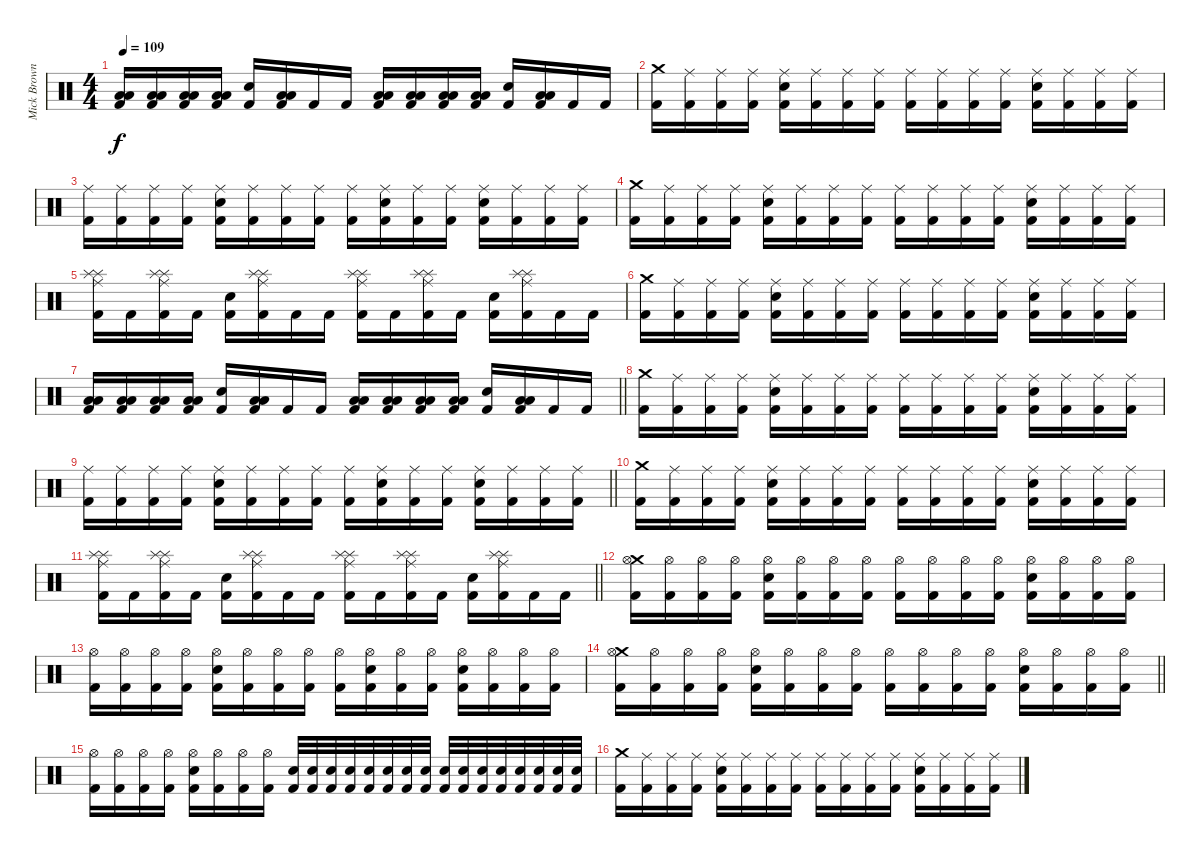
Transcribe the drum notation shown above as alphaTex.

\track ("Mick Brown" "Mick Brown") {instrument percussion}
\staff {score}
\articulation defaults
\ts (4 4)
\tempo 109
\clef neutral
\ks c
("Low Floor Tom (hit)" "Low Floor Tom (hit)" "Kick (hit) 2").16{dy f} ("Low Floor Tom (hit)" "Low Floor Tom (hit)" "Kick (hit) 2").16 ("Low Floor Tom (hit)" "Low Floor Tom (hit)" "Kick (hit) 2").16 ("Low Floor Tom (hit)" "Low Floor Tom (hit)" "Kick (hit) 2").16 ("Snare (hit) 2" "Kick (hit) 2").16 ("Low Floor Tom (hit)" "Low Floor Tom (hit)" "Kick (hit) 2").16 "Kick (hit) 2".16 "Kick (hit) 2".16 ("Low Floor Tom (hit)" "Low Floor Tom (hit)" "Kick (hit) 2").16 ("Low Floor Tom (hit)" "Low Floor Tom (hit)" "Kick (hit) 2").16 ("Low Floor Tom (hit)" "Low Floor Tom (hit)" "Kick (hit) 2").16 ("Low Floor Tom (hit)" "Low Floor Tom (hit)" "Kick (hit) 2").16 ("Snare (hit) 2" "Kick (hit) 2").16 ("Low Floor Tom (hit)" "Low Floor Tom (hit)" "Kick (hit) 2").16 "Kick (hit) 2".16 "Kick (hit) 2".16 |
("Crash medium (hit)" "Kick (hit) 2").16 ("Ride (middle)" "Kick (hit) 2").16 ("Ride (middle)" "Kick (hit) 2").16 ("Ride (middle)" "Kick (hit) 2").16 ("Ride (middle)" "Snare (hit) 2" "Kick (hit) 2").16 ("Ride (middle)" "Kick (hit) 2").16 ("Ride (middle)" "Kick (hit) 2").16 ("Ride (middle)" "Kick (hit) 2").16 ("Ride (middle)" "Kick (hit) 2").16 ("Ride (middle)" "Kick (hit) 2").16 ("Ride (middle)" "Kick (hit) 2").16 ("Ride (middle)" "Kick (hit) 2").16 ("Ride (middle)" "Snare (hit) 2" "Kick (hit) 2").16 ("Ride (middle)" "Kick (hit) 2").16 ("Ride (middle)" "Kick (hit) 2").16 ("Ride (middle)" "Kick (hit) 2").16 |
("Ride (middle)" "Kick (hit) 2").16 ("Ride (middle)" "Kick (hit) 2").16 ("Ride (middle)" "Kick (hit) 2").16 ("Ride (middle)" "Kick (hit) 2").16 ("Ride (middle)" "Snare (hit) 2" "Kick (hit) 2").16 ("Ride (middle)" "Kick (hit) 2").16 ("Ride (middle)" "Kick (hit) 2").16 ("Ride (middle)" "Kick (hit) 2").16 ("Ride (middle)" "Kick (hit) 2").16 ("Ride (middle)" "Snare (hit) 2" "Kick (hit) 2").16 ("Ride (middle)" "Kick (hit) 2").16 ("Ride (middle)" "Kick (hit) 2").16 ("Ride (middle)" "Snare (hit) 2" "Kick (hit) 2").16 ("Ride (middle)" "Kick (hit) 2").16 ("Ride (middle)" "Kick (hit) 2").16 ("Ride (middle)" "Kick (hit) 2").16 |
("Crash medium (hit)" "Kick (hit) 2").16 ("Ride (middle)" "Kick (hit) 2").16 ("Ride (middle)" "Kick (hit) 2").16 ("Ride (middle)" "Kick (hit) 2").16 ("Ride (middle)" "Snare (hit) 2" "Kick (hit) 2").16 ("Ride (middle)" "Kick (hit) 2").16 ("Ride (middle)" "Kick (hit) 2").16 ("Ride (middle)" "Kick (hit) 2").16 ("Ride (middle)" "Kick (hit) 2").16 ("Ride (middle)" "Kick (hit) 2").16 ("Ride (middle)" "Kick (hit) 2").16 ("Ride (middle)" "Kick (hit) 2").16 ("Ride (middle)" "Snare (hit) 2" "Kick (hit) 2").16 ("Ride (middle)" "Kick (hit) 2").16 ("Ride (middle)" "Kick (hit) 2").16 ("Ride (middle)" "Kick (hit) 2").16 |
("Splash (hit)" "Ride (middle)" "Splash (hit)" "Kick (hit) 2").16 "Kick (hit) 2".16 ("Splash (hit)" "Ride (middle)" "Splash (hit)" "Kick (hit) 2").16 "Kick (hit) 2".16 ("Snare (hit) 2" "Kick (hit) 2").16 ("Splash (hit)" "Ride (middle)" "Splash (hit)" "Kick (hit) 2").16 "Kick (hit) 2".16 "Kick (hit) 2".16 ("Splash (hit)" "Ride (middle)" "Splash (hit)" "Kick (hit) 2").16 "Kick (hit) 2".16 ("Splash (hit)" "Ride (middle)" "Splash (hit)" "Kick (hit) 2").16 "Kick (hit) 2".16 ("Snare (hit) 2" "Kick (hit) 2").16 ("Splash (hit)" "Ride (middle)" "Splash (hit)" "Kick (hit) 2").16 "Kick (hit) 2".16 "Kick (hit) 2".16 |
("Crash medium (hit)" "Kick (hit) 2").16 ("Ride (middle)" "Kick (hit) 2").16 ("Ride (middle)" "Kick (hit) 2").16 ("Ride (middle)" "Kick (hit) 2").16 ("Ride (middle)" "Snare (hit) 2" "Kick (hit) 2").16 ("Ride (middle)" "Kick (hit) 2").16 ("Ride (middle)" "Kick (hit) 2").16 ("Ride (middle)" "Kick (hit) 2").16 ("Ride (middle)" "Kick (hit) 2").16 ("Ride (middle)" "Kick (hit) 2").16 ("Ride (middle)" "Kick (hit) 2").16 ("Ride (middle)" "Kick (hit) 2").16 ("Ride (middle)" "Snare (hit) 2" "Kick (hit) 2").16 ("Ride (middle)" "Kick (hit) 2").16 ("Ride (middle)" "Kick (hit) 2").16 ("Ride (middle)" "Kick (hit) 2").16 |
\barLineRight lightlight
("Low Floor Tom (hit)" "Low Floor Tom (hit)" "Kick (hit) 2").16 ("Low Floor Tom (hit)" "Low Floor Tom (hit)" "Kick (hit) 2").16 ("Low Floor Tom (hit)" "Low Floor Tom (hit)" "Kick (hit) 2").16 ("Low Floor Tom (hit)" "Low Floor Tom (hit)" "Kick (hit) 2").16 ("Snare (hit) 2" "Kick (hit) 2").16 ("Low Floor Tom (hit)" "Low Floor Tom (hit)" "Kick (hit) 2").16 "Kick (hit) 2".16 "Kick (hit) 2".16 ("Low Floor Tom (hit)" "Low Floor Tom (hit)" "Kick (hit) 2").16 ("Low Floor Tom (hit)" "Low Floor Tom (hit)" "Kick (hit) 2").16 ("Low Floor Tom (hit)" "Low Floor Tom (hit)" "Kick (hit) 2").16 ("Low Floor Tom (hit)" "Low Floor Tom (hit)" "Kick (hit) 2").16 ("Snare (hit) 2" "Kick (hit) 2").16 ("Low Floor Tom (hit)" "Low Floor Tom (hit)" "Kick (hit) 2").16 "Kick (hit) 2".16 "Kick (hit) 2".16 |
("Crash medium (hit)" "Kick (hit) 2").16 ("Ride (middle)" "Kick (hit) 2").16 ("Ride (middle)" "Kick (hit) 2").16 ("Ride (middle)" "Kick (hit) 2").16 ("Ride (middle)" "Snare (hit) 2" "Kick (hit) 2").16 ("Ride (middle)" "Kick (hit) 2").16 ("Ride (middle)" "Kick (hit) 2").16 ("Ride (middle)" "Kick (hit) 2").16 ("Ride (middle)" "Kick (hit) 2").16 ("Ride (middle)" "Kick (hit) 2").16 ("Ride (middle)" "Kick (hit) 2").16 ("Ride (middle)" "Kick (hit) 2").16 ("Ride (middle)" "Snare (hit) 2" "Kick (hit) 2").16 ("Ride (middle)" "Kick (hit) 2").16 ("Ride (middle)" "Kick (hit) 2").16 ("Ride (middle)" "Kick (hit) 2").16 |
\barLineRight lightlight
("Ride (middle)" "Kick (hit) 2").16 ("Ride (middle)" "Kick (hit) 2").16 ("Ride (middle)" "Kick (hit) 2").16 ("Ride (middle)" "Kick (hit) 2").16 ("Ride (middle)" "Snare (hit) 2" "Kick (hit) 2").16 ("Ride (middle)" "Kick (hit) 2").16 ("Ride (middle)" "Kick (hit) 2").16 ("Ride (middle)" "Kick (hit) 2").16 ("Ride (middle)" "Kick (hit) 2").16 ("Ride (middle)" "Snare (hit) 2" "Kick (hit) 2").16 ("Ride (middle)" "Kick (hit) 2").16 ("Ride (middle)" "Kick (hit) 2").16 ("Ride (middle)" "Snare (hit) 2" "Kick (hit) 2").16 ("Ride (middle)" "Kick (hit) 2").16 ("Ride (middle)" "Kick (hit) 2").16 ("Ride (middle)" "Kick (hit) 2").16 |
("Crash medium (hit)" "Kick (hit) 2").16 ("Ride (middle)" "Kick (hit) 2").16 ("Ride (middle)" "Kick (hit) 2").16 ("Ride (middle)" "Kick (hit) 2").16 ("Ride (middle)" "Snare (hit) 2" "Kick (hit) 2").16 ("Ride (middle)" "Kick (hit) 2").16 ("Ride (middle)" "Kick (hit) 2").16 ("Ride (middle)" "Kick (hit) 2").16 ("Ride (middle)" "Kick (hit) 2").16 ("Ride (middle)" "Kick (hit) 2").16 ("Ride (middle)" "Kick (hit) 2").16 ("Ride (middle)" "Kick (hit) 2").16 ("Ride (middle)" "Snare (hit) 2" "Kick (hit) 2").16 ("Ride (middle)" "Kick (hit) 2").16 ("Ride (middle)" "Kick (hit) 2").16 ("Ride (middle)" "Kick (hit) 2").16 |
\barLineRight lightlight
("Splash (hit)" "Ride (middle)" "Splash (hit)" "Kick (hit) 2").16 "Kick (hit) 2".16 ("Splash (hit)" "Ride (middle)" "Splash (hit)" "Kick (hit) 2").16 "Kick (hit) 2".16 ("Snare (hit) 2" "Kick (hit) 2").16 ("Splash (hit)" "Ride (middle)" "Splash (hit)" "Kick (hit) 2").16 "Kick (hit) 2".16 "Kick (hit) 2".16 ("Splash (hit)" "Ride (middle)" "Splash (hit)" "Kick (hit) 2").16 "Kick (hit) 2".16 ("Splash (hit)" "Ride (middle)" "Splash (hit)" "Kick (hit) 2").16 "Kick (hit) 2".16 ("Snare (hit) 2" "Kick (hit) 2").16 ("Splash (hit)" "Ride (middle)" "Splash (hit)" "Kick (hit) 2").16 "Kick (hit) 2".16 "Kick (hit) 2".16 |
("Crash medium (hit)" "Hi-Hat (open)" "Kick (hit) 2").16 ("Hi-Hat (open)" "Kick (hit) 2").16 ("Hi-Hat (open)" "Kick (hit) 2").16 ("Hi-Hat (open)" "Kick (hit) 2").16 ("Hi-Hat (open)" "Snare (hit) 2" "Kick (hit) 2").16 ("Hi-Hat (open)" "Kick (hit) 2").16 ("Hi-Hat (open)" "Kick (hit) 2").16 ("Hi-Hat (open)" "Kick (hit) 2").16 ("Hi-Hat (open)" "Kick (hit) 2").16 ("Hi-Hat (open)" "Kick (hit) 2").16 ("Hi-Hat (open)" "Kick (hit) 2").16 ("Hi-Hat (open)" "Kick (hit) 2").16 ("Hi-Hat (open)" "Snare (hit) 2" "Kick (hit) 2").16 ("Hi-Hat (open)" "Kick (hit) 2").16 ("Hi-Hat (open)" "Kick (hit) 2").16 ("Hi-Hat (open)" "Kick (hit) 2").16 |
("Hi-Hat (open)" "Kick (hit) 2").16 ("Hi-Hat (open)" "Kick (hit) 2").16 ("Hi-Hat (open)" "Kick (hit) 2").16 ("Hi-Hat (open)" "Kick (hit) 2").16 ("Hi-Hat (open)" "Snare (hit) 2" "Kick (hit) 2").16 ("Hi-Hat (open)" "Kick (hit) 2").16 ("Hi-Hat (open)" "Kick (hit) 2").16 ("Hi-Hat (open)" "Kick (hit) 2").16 ("Hi-Hat (open)" "Kick (hit) 2").16 ("Hi-Hat (open)" "Snare (hit) 2" "Kick (hit) 2").16 ("Hi-Hat (open)" "Kick (hit) 2").16 ("Hi-Hat (open)" "Kick (hit) 2").16 ("Hi-Hat (open)" "Snare (hit) 2" "Kick (hit) 2").16 ("Hi-Hat (open)" "Kick (hit) 2").16 ("Hi-Hat (open)" "Kick (hit) 2").16 ("Hi-Hat (open)" "Kick (hit) 2").16 |
\barLineRight lightlight
("Crash medium (hit)" "Hi-Hat (open)" "Kick (hit) 2").16 ("Hi-Hat (open)" "Kick (hit) 2").16 ("Hi-Hat (open)" "Kick (hit) 2").16 ("Hi-Hat (open)" "Kick (hit) 2").16 ("Hi-Hat (open)" "Snare (hit) 2" "Kick (hit) 2").16 ("Hi-Hat (open)" "Kick (hit) 2").16 ("Hi-Hat (open)" "Kick (hit) 2").16 ("Hi-Hat (open)" "Kick (hit) 2").16 ("Hi-Hat (open)" "Kick (hit) 2").16 ("Hi-Hat (open)" "Kick (hit) 2").16 ("Hi-Hat (open)" "Kick (hit) 2").16 ("Hi-Hat (open)" "Kick (hit) 2").16 ("Hi-Hat (open)" "Snare (hit) 2" "Kick (hit) 2").16 ("Hi-Hat (open)" "Kick (hit) 2").16 ("Hi-Hat (open)" "Kick (hit) 2").16 ("Hi-Hat (open)" "Kick (hit) 2").16 |
("Hi-Hat (open)" "Kick (hit) 2").16 ("Hi-Hat (open)" "Kick (hit) 2").16 ("Hi-Hat (open)" "Kick (hit) 2").16 ("Hi-Hat (open)" "Kick (hit) 2").16 ("Hi-Hat (open)" "Snare (hit) 2" "Kick (hit) 2").16 ("Hi-Hat (open)" "Kick (hit) 2").16 ("Hi-Hat (open)" "Kick (hit) 2").16 ("Hi-Hat (open)" "Kick (hit) 2").16 ("Snare (hit) 2" "Kick (hit) 2").32 ("Snare (hit) 2" "Kick (hit) 2").32 ("Snare (hit) 2" "Kick (hit) 2").32 ("Snare (hit) 2" "Kick (hit) 2").32 ("Snare (hit) 2" "Kick (hit) 2").32 ("Snare (hit) 2" "Kick (hit) 2").32 ("Snare (hit) 2" "Kick (hit) 2").32 ("Snare (hit) 2" "Kick (hit) 2").32 ("Snare (hit) 2" "Kick (hit) 2").32 ("Snare (hit) 2" "Kick (hit) 2").32 ("Snare (hit) 2" "Kick (hit) 2").32 ("Snare (hit) 2" "Kick (hit) 2").32 ("Snare (hit) 2" "Kick (hit) 2").32 ("Snare (hit) 2" "Kick (hit) 2").32 ("Snare (hit) 2" "Kick (hit) 2").32 ("Snare (hit) 2" "Kick (hit) 2").32 |
("Crash medium (hit)" "Kick (hit) 2").16 ("Ride (middle)" "Kick (hit) 2").16 ("Ride (middle)" "Kick (hit) 2").16 ("Ride (middle)" "Kick (hit) 2").16 ("Ride (middle)" "Snare (hit) 2" "Kick (hit) 2").16 ("Ride (middle)" "Kick (hit) 2").16 ("Ride (middle)" "Kick (hit) 2").16 ("Ride (middle)" "Kick (hit) 2").16 ("Ride (middle)" "Kick (hit) 2").16 ("Ride (middle)" "Kick (hit) 2").16 ("Ride (middle)" "Kick (hit) 2").16 ("Ride (middle)" "Kick (hit) 2").16 ("Ride (middle)" "Snare (hit) 2" "Kick (hit) 2").16 ("Ride (middle)" "Kick (hit) 2").16 ("Ride (middle)" "Kick (hit) 2").16 ("Ride (middle)" "Kick (hit) 2").16
